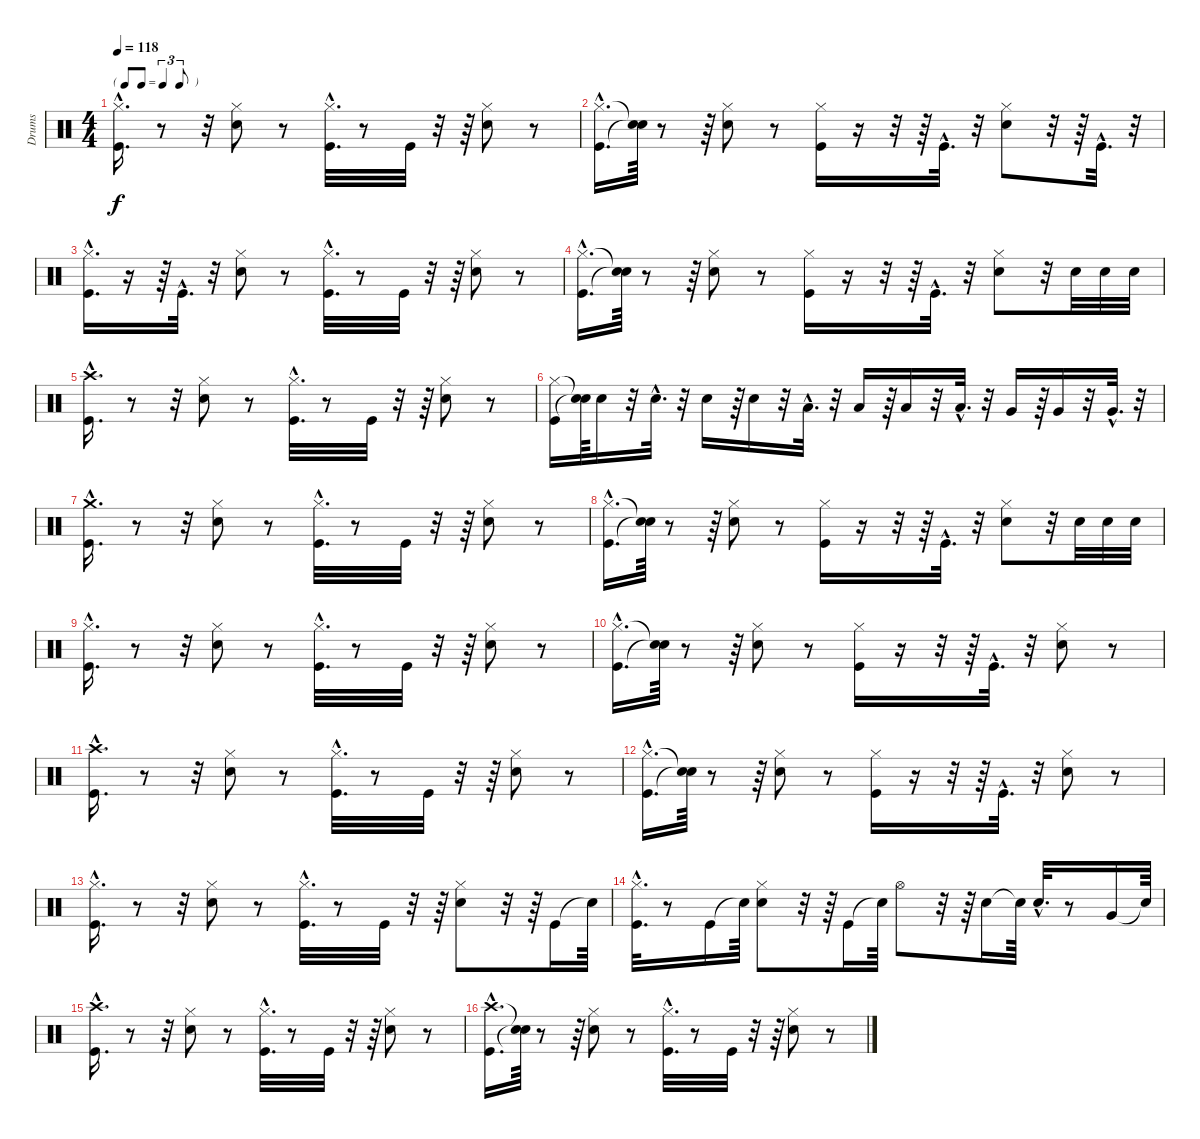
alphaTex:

\track ("Drums" "Drums") {instrument percussion}
\staff {score}
\articulation defaults
\ts (4 4)
\tf triplet8th
\tempo 118
\clef neutral
\ks c
("Hi-Hat (closed)"{hac} "Kick (hit)"{hac}).16{d dy f} r.8 r.32 ("Hi-Hat (closed)" "Snare (hit) 2").8 r.8 ("Hi-Hat (closed)"{hac} "Kick (hit)"{hac}).32{d} r.8 "Kick (hit)".32 r.32 r.64 ("Snare (hit) 2" "Hi-Hat (closed)").8 r.8 |
("Hi-Hat (closed)"{hac} "Kick (hit)"{hac}).16{d} ("Snare (hit)"{t} "Snare (hit)"{t}).64 r.8 r.64 ("Hi-Hat (closed)" "Snare (hit) 2").8 r.8 ("Hi-Hat (closed)" "Kick (hit)").16 r.16 r.32 r.64 "Kick (hit)"{hac}.32{d} r.32 ("Snare (hit) 2" "Hi-Hat (closed)").8 r.32 r.64 "Kick (hit)"{hac}.32{d} r.32 |
("Kick (hit)"{hac} "Hi-Hat (closed)"{hac}).16{d} r.16 r.64 "Kick (hit)"{hac}.32{d} r.32 ("Snare (hit) 2" "Hi-Hat (closed)").8 r.8 ("Hi-Hat (closed)"{hac} "Kick (hit)"{hac}).32{d} r.8 "Kick (hit)".32 r.32 r.64 ("Hi-Hat (closed)" "Snare (hit) 2").8 r.8 |
("Kick (hit)"{hac} "Hi-Hat (closed)"{hac}).16{d} ("Snare (hit)"{t} "Snare (hit)"{t}).64 r.8 r.64 ("Hi-Hat (closed)" "Snare (hit) 2").8 r.8 ("Hi-Hat (closed)" "Kick (hit)").16 r.16 r.32 r.64 "Kick (hit)"{hac}.32{d} r.32 ("Snare (hit) 2" "Hi-Hat (closed)").8 r.32 "Snare (hit) 2".32 "Snare (hit) 2".32 "Snare (hit) 2".32 |
("Crash high (hit)"{hac} "Kick (hit)"{hac}).16{d} r.8 r.32 ("Hi-Hat (closed)" "Snare (hit) 2").8 r.8 ("Hi-Hat (closed)"{hac} "Kick (hit)"{hac}).32{d} r.8 "Kick (hit)".32 r.32 r.64 ("Hi-Hat (closed)" "Snare (hit) 2").8 r.8 |
("Hi-Hat (closed)" "Kick (hit)").16 ("Snare (hit)"{t} "Snare (hit)"{t}).64 "Snare (hit) 2".16 r.32 "Snare (hit) 2"{hac}.32{d} r.32 "Snare (hit) 2".16 r.64 "Snare (hit) 2".16 r.32 "Low Tom (hit)"{hac}.32{d} r.32 "Low Tom (hit)".16 r.64 "Low Tom (hit)".16 r.32 "Low Tom (hit)"{hac}.32{d} r.32 "Very Low Tom (hit)".16 r.64 "Very Low Tom (hit)".16 r.32 "Very Low Tom (hit)"{hac}.32{d} r.32 |
("Kick (hit)"{hac} "Crash medium (hit)"{hac}).16{d} r.8 r.32 ("Hi-Hat (closed)" "Snare (hit) 2").8 r.8 ("Kick (hit)"{hac} "Hi-Hat (closed)"{hac}).32{d} r.8 "Kick (hit)".32 r.32 r.64 ("Hi-Hat (closed)" "Snare (hit) 2").8 r.8 |
("Kick (hit)"{hac} "Hi-Hat (closed)"{hac}).16{d} ("Snare (hit)"{t} "Snare (hit)"{t}).64 r.8 r.64 ("Snare (hit) 2" "Hi-Hat (closed)").8 r.8 ("Hi-Hat (closed)" "Kick (hit)").16 r.16 r.32 r.64 "Kick (hit)"{hac}.32{d} r.32 ("Snare (hit) 2" "Hi-Hat (closed)").8 r.32 "Snare (hit) 2".32 "Snare (hit) 2".32 "Snare (hit) 2".32 |
("Kick (hit)"{hac} "Hi-Hat (closed)"{hac}).16{d} r.8 r.32 ("Snare (hit) 2" "Hi-Hat (closed)").8 r.8 ("Hi-Hat (closed)"{hac} "Kick (hit)"{hac}).32{d} r.8 "Kick (hit)".32 r.32 r.64 ("Hi-Hat (closed)" "Snare (hit) 2").8 r.8 |
("Kick (hit)"{hac} "Hi-Hat (closed)"{hac}).16{d} ("Snare (hit)"{t} "Snare (hit)"{t}).64 r.8 r.64 ("Hi-Hat (closed)" "Snare (hit) 2").8 r.8 ("Kick (hit)" "Hi-Hat (closed)").16 r.16 r.32 r.64 "Kick (hit)"{hac}.32{d} r.32 ("Snare (hit) 2" "Hi-Hat (closed)").8 r.8 |
("Crash high (hit)"{hac} "Kick (hit)"{hac}).16{d} r.8 r.32 ("Hi-Hat (closed)" "Snare (hit) 2").8 r.8 ("Kick (hit)"{hac} "Hi-Hat (closed)"{hac}).32{d} r.8 "Kick (hit)".32 r.32 r.64 ("Snare (hit) 2" "Hi-Hat (closed)").8 r.8 |
("Hi-Hat (closed)"{hac} "Kick (hit)"{hac}).16{d} ("Snare (hit)"{t} "Snare (hit)"{t}).64 r.8 r.64 ("Hi-Hat (closed)" "Snare (hit) 2").8 r.8 ("Kick (hit)" "Hi-Hat (closed)").16 r.16 r.32 r.64 "Kick (hit)"{hac}.32{d} r.32 ("Hi-Hat (closed)" "Snare (hit) 2").8 r.8 |
("Kick (hit)"{hac} "Hi-Hat (closed)"{hac}).16{d} r.8 r.32 ("Snare (hit) 2" "Hi-Hat (closed)").8 r.8 ("Hi-Hat (closed)"{hac} "Kick (hit)"{hac}).32{d} r.8 "Kick (hit)".32 r.32 r.64 ("Hi-Hat (closed)" "Snare (hit) 2").8 r.32 r.64 "Kick (hit)".16 "Snare (hit)"{t}.64 |
("Kick (hit)"{hac} "Hi-Hat (closed)"{hac}).32{d} r.8 "Kick (hit)".16 "Snare (hit)"{t}.64 ("Hi-Hat (closed)" "Snare (hit) 2").8 r.32 r.64 "Kick (hit)".16 "Snare (hit)"{t}.64 "Hi-Hat (open)".8 r.32 r.64 "Snare (hit) 2".16 "Snare (hit)"{t}.64 "Snare (hit) 2"{hac}.32{d} r.8 "Very Low Tom (hit)".16 "Snare (hit)"{t}.64 |
("Kick (hit)"{hac} "Crash high (hit)"{hac}).16{d} r.8 r.32 ("Snare (hit) 2" "Hi-Hat (closed)").8 r.8 ("Hi-Hat (closed)"{hac} "Kick (hit)"{hac}).32{d} r.8 "Kick (hit)".32 r.32 r.64 ("Hi-Hat (closed)" "Snare (hit) 2").8 r.8 |
("Crash high (hit)"{hac} "Kick (hit)"{hac}).16{d} ("Snare (hit)"{t} "Snare (hit)"{t}).64 r.8 r.64 ("Hi-Hat (closed)" "Snare (hit) 2").8 r.8 ("Hi-Hat (closed)"{hac} "Kick (hit)"{hac}).32{d} r.8 "Kick (hit)".32 r.32 r.64 ("Snare (hit) 2" "Hi-Hat (closed)").8 r.8
